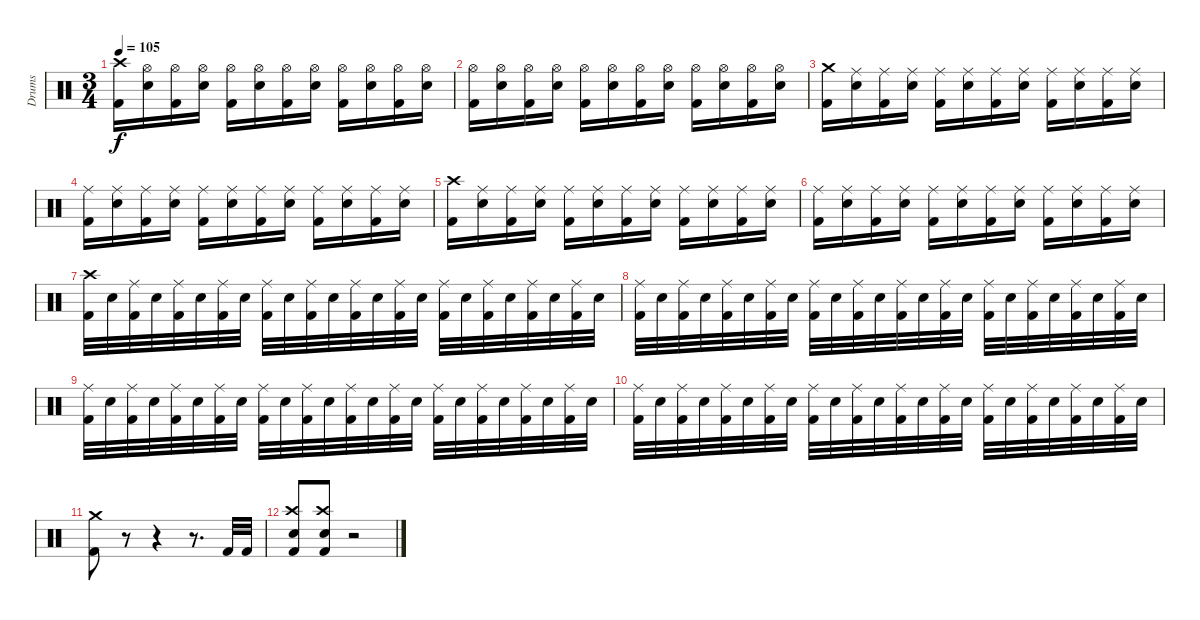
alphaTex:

\track ("Drums" "Drums") {instrument percussion}
\staff {score}
\articulation defaults
\ts (3 4)
\tempo 105
\clef neutral
\ks c
("Kick (hit) 2" "Crash high (hit)").16{dy f} ("Electric Snare (hit)" "Hi-Hat (open)").16 ("Kick (hit) 2" "Hi-Hat (open)").16 ("Electric Snare (hit)" "Hi-Hat (open)").16 ("Kick (hit) 2" "Hi-Hat (open)").16 ("Electric Snare (hit)" "Hi-Hat (open)").16 ("Kick (hit) 2" "Hi-Hat (open)").16 ("Electric Snare (hit)" "Hi-Hat (open)").16 ("Kick (hit) 2" "Hi-Hat (open)").16 ("Electric Snare (hit)" "Hi-Hat (open)").16 ("Kick (hit) 2" "Hi-Hat (open)").16 ("Electric Snare (hit)" "Hi-Hat (open)").16 |
("Kick (hit) 2" "Hi-Hat (open)").16 ("Electric Snare (hit)" "Hi-Hat (open)").16 ("Kick (hit) 2" "Hi-Hat (open)").16 ("Electric Snare (hit)" "Hi-Hat (open)").16 ("Kick (hit) 2" "Hi-Hat (open)").16 ("Electric Snare (hit)" "Hi-Hat (open)").16 ("Kick (hit) 2" "Hi-Hat (open)").16 ("Electric Snare (hit)" "Hi-Hat (open)").16 ("Kick (hit) 2" "Hi-Hat (open)").16 ("Electric Snare (hit)" "Hi-Hat (open)").16 ("Kick (hit) 2" "Hi-Hat (open)").16 ("Electric Snare (hit)" "Hi-Hat (open)").16 |
("Kick (hit) 2" "Crash medium (hit)").16 ("Electric Snare (hit)" "Ride (middle)").16 ("Kick (hit) 2" "Ride (middle)").16 ("Electric Snare (hit)" "Ride (middle)").16 ("Kick (hit) 2" "Ride (middle)").16 ("Electric Snare (hit)" "Ride (middle)").16 ("Kick (hit) 2" "Ride (middle)").16 ("Electric Snare (hit)" "Ride (middle)").16 ("Kick (hit) 2" "Ride (middle)").16 ("Electric Snare (hit)" "Ride (middle)").16 ("Kick (hit) 2" "Ride (middle)").16 ("Electric Snare (hit)" "Ride (middle)").16 |
("Kick (hit) 2" "Ride (middle)").16 ("Electric Snare (hit)" "Ride (middle)").16 ("Kick (hit) 2" "Ride (middle)").16 ("Electric Snare (hit)" "Ride (middle)").16 ("Kick (hit) 2" "Ride (middle)").16 ("Electric Snare (hit)" "Ride (middle)").16 ("Kick (hit) 2" "Ride (middle)").16 ("Electric Snare (hit)" "Ride (middle)").16 ("Kick (hit) 2" "Ride (middle)").16 ("Electric Snare (hit)" "Ride (middle)").16 ("Kick (hit) 2" "Ride (middle)").16 ("Electric Snare (hit)" "Ride (middle)").16 |
("Kick (hit) 2" "Crash high (hit)").16 ("Electric Snare (hit)" "Ride (middle)").16 ("Kick (hit) 2" "Ride (middle)").16 ("Electric Snare (hit)" "Ride (middle)").16 ("Kick (hit) 2" "Ride (middle)").16 ("Electric Snare (hit)" "Ride (middle)").16 ("Kick (hit) 2" "Ride (middle)").16 ("Electric Snare (hit)" "Ride (middle)").16 ("Kick (hit) 2" "Ride (middle)").16 ("Electric Snare (hit)" "Ride (middle)").16 ("Kick (hit) 2" "Ride (middle)").16 ("Electric Snare (hit)" "Ride (middle)").16 |
("Kick (hit) 2" "Ride (middle)").16 ("Electric Snare (hit)" "Ride (middle)").16 ("Kick (hit) 2" "Ride (middle)").16 ("Electric Snare (hit)" "Ride (middle)").16 ("Kick (hit) 2" "Ride (middle)").16 ("Electric Snare (hit)" "Ride (middle)").16 ("Kick (hit) 2" "Ride (middle)").16 ("Electric Snare (hit)" "Ride (middle)").16 ("Kick (hit) 2" "Ride (middle)").16 ("Electric Snare (hit)" "Ride (middle)").16 ("Kick (hit) 2" "Ride (middle)").16 ("Electric Snare (hit)" "Ride (middle)").16 |
("Kick (hit) 2" "Crash high (hit)").32 "Electric Snare (hit)".32 ("Kick (hit) 2" "Ride (middle)").32 "Electric Snare (hit)".32 ("Kick (hit) 2" "Ride (middle)").32 "Electric Snare (hit)".32 ("Kick (hit) 2" "Ride (middle)").32 "Electric Snare (hit)".32 ("Kick (hit) 2" "Ride (middle)").32 "Electric Snare (hit)".32 ("Kick (hit) 2" "Ride (middle)").32 "Electric Snare (hit)".32 ("Kick (hit) 2" "Ride (middle)").32 "Electric Snare (hit)".32 ("Kick (hit) 2" "Ride (middle)").32 "Electric Snare (hit)".32 ("Kick (hit) 2" "Ride (middle)").32 "Electric Snare (hit)".32 ("Kick (hit) 2" "Ride (middle)").32 "Electric Snare (hit)".32 ("Kick (hit) 2" "Ride (middle)").32 "Electric Snare (hit)".32 ("Kick (hit) 2" "Ride (middle)").32 "Electric Snare (hit)".32 |
("Kick (hit) 2" "Ride (middle)").32 "Electric Snare (hit)".32 ("Kick (hit) 2" "Ride (middle)").32 "Electric Snare (hit)".32 ("Kick (hit) 2" "Ride (middle)").32 "Electric Snare (hit)".32 ("Kick (hit) 2" "Ride (middle)").32 "Electric Snare (hit)".32 ("Kick (hit) 2" "Ride (middle)").32 "Electric Snare (hit)".32 ("Kick (hit) 2" "Ride (middle)").32 "Electric Snare (hit)".32 ("Kick (hit) 2" "Ride (middle)").32 "Electric Snare (hit)".32 ("Kick (hit) 2" "Ride (middle)").32 "Electric Snare (hit)".32 ("Kick (hit) 2" "Ride (middle)").32 "Electric Snare (hit)".32 ("Kick (hit) 2" "Ride (middle)").32 "Electric Snare (hit)".32 ("Kick (hit) 2" "Ride (middle)").32 "Electric Snare (hit)".32 ("Kick (hit) 2" "Ride (middle)").32 "Electric Snare (hit)".32 |
("Kick (hit) 2" "Ride (middle)").32 "Electric Snare (hit)".32 ("Kick (hit) 2" "Ride (middle)").32 "Electric Snare (hit)".32 ("Kick (hit) 2" "Ride (middle)").32 "Electric Snare (hit)".32 ("Kick (hit) 2" "Ride (middle)").32 "Electric Snare (hit)".32 ("Kick (hit) 2" "Ride (middle)").32 "Electric Snare (hit)".32 ("Kick (hit) 2" "Ride (middle)").32 "Electric Snare (hit)".32 ("Kick (hit) 2" "Ride (middle)").32 "Electric Snare (hit)".32 ("Kick (hit) 2" "Ride (middle)").32 "Electric Snare (hit)".32 ("Kick (hit) 2" "Ride (middle)").32 "Electric Snare (hit)".32 ("Kick (hit) 2" "Ride (middle)").32 "Electric Snare (hit)".32 ("Kick (hit) 2" "Ride (middle)").32 "Electric Snare (hit)".32 ("Kick (hit) 2" "Ride (middle)").32 "Electric Snare (hit)".32 |
("Kick (hit) 2" "Ride (middle)").32 "Electric Snare (hit)".32 ("Kick (hit) 2" "Ride (middle)").32 "Electric Snare (hit)".32 ("Kick (hit) 2" "Ride (middle)").32 "Electric Snare (hit)".32 ("Kick (hit) 2" "Ride (middle)").32 "Electric Snare (hit)".32 ("Kick (hit) 2" "Ride (middle)").32 "Electric Snare (hit)".32 ("Kick (hit) 2" "Ride (middle)").32 "Electric Snare (hit)".32 ("Kick (hit) 2" "Ride (middle)").32 "Electric Snare (hit)".32 ("Kick (hit) 2" "Ride (middle)").32 "Electric Snare (hit)".32 ("Kick (hit) 2" "Ride (middle)").32 "Electric Snare (hit)".32 ("Kick (hit) 2" "Ride (middle)").32 "Electric Snare (hit)".32 ("Kick (hit) 2" "Ride (middle)").32 "Electric Snare (hit)".32 ("Kick (hit) 2" "Ride (middle)").32 "Electric Snare (hit)".32 |
("Kick (hit) 2" "Crash medium (hit)").8 r.8 r.4 r.8{d} "Kick (hit) 2".32 "Kick (hit) 2".32 |
("Kick (hit) 2" "Electric Snare (hit)" "Crash high (hit)").8 ("Kick (hit) 2" "Electric Snare (hit)" "Crash high (hit)").8 r.2
